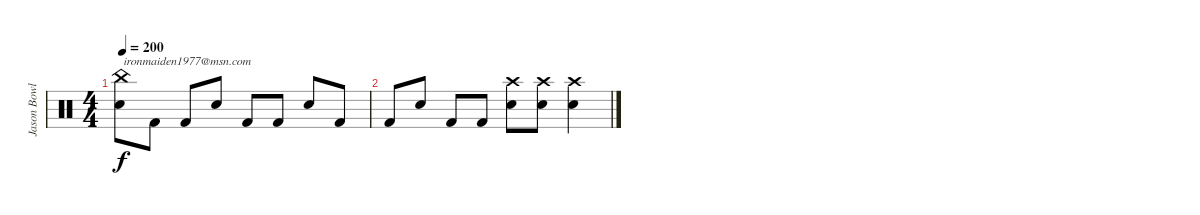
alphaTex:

\track ("Jason Bowld" "Jason Bowl") {instrument percussion}
\staff {score}
\articulation defaults
\ts (4 4)
\tempo 200
\clef neutral
\ks c
("China (hit)" "Snare (hit) 2").8{txt "ironmaiden1977@msn.com" dy f} "Kick (hit) 2".8 "Kick (hit) 2".8 "Snare (hit) 2".8 "Kick (hit) 2".8 "Kick (hit) 2".8 "Snare (hit) 2".8 "Kick (hit) 2".8 |
"Kick (hit) 2".8 "Snare (hit) 2".8 "Kick (hit) 2".8 "Kick (hit) 2".8 ("Crash high (hit)" "Snare (hit) 2").8 ("Crash high (hit)" "Snare (hit) 2").8 ("Crash high (hit)" "Snare (hit) 2").4
